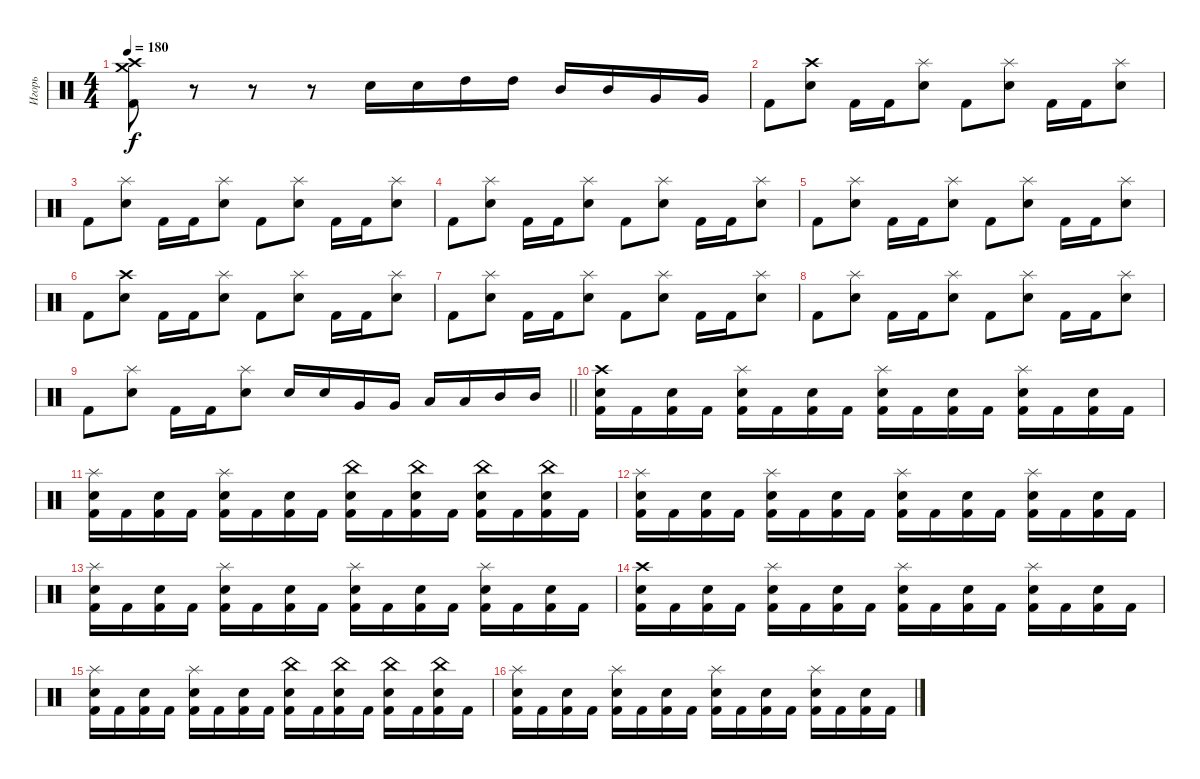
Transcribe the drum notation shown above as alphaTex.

\track ("Игорь" "Игорь") {instrument percussion}
\staff {score}
\articulation defaults
\ts (4 4)
\tempo 180
\clef neutral
\ks c
("Crash high (hit)" "Crash medium (hit)" "Kick (hit) 2").8{dy f} r.8 r.8 r.8 "Electric Snare (hit)".16 "Electric Snare (hit)".16 "High Tom (hit)".16 "High Tom (hit)".16 "Mid Tom (hit)".16 "Mid Tom (hit)".16 "Very Low Tom (hit)".16 "Very Low Tom (hit)".16 |
"Kick (hit) 2".8 ("Crash high (hit)" "Electric Snare (hit)").8 "Kick (hit) 2".16 "Kick (hit) 2".16 ("Splash (hit)" "Electric Snare (hit)").8 "Kick (hit) 2".8 ("Splash (hit)" "Electric Snare (hit)").8 "Kick (hit) 2".16 "Kick (hit) 2".16 ("Splash (hit)" "Electric Snare (hit)").8 |
"Kick (hit) 2".8 ("Splash (hit)" "Electric Snare (hit)").8 "Kick (hit) 2".16 "Kick (hit) 2".16 ("Splash (hit)" "Electric Snare (hit)").8 "Kick (hit) 2".8 ("Splash (hit)" "Electric Snare (hit)").8 "Kick (hit) 2".16 "Kick (hit) 2".16 ("Splash (hit)" "Electric Snare (hit)").8 |
"Kick (hit) 2".8 ("Splash (hit)" "Electric Snare (hit)").8 "Kick (hit) 2".16 "Kick (hit) 2".16 ("Splash (hit)" "Electric Snare (hit)").8 "Kick (hit) 2".8 ("Splash (hit)" "Electric Snare (hit)").8 "Kick (hit) 2".16 "Kick (hit) 2".16 ("Splash (hit)" "Electric Snare (hit)").8 |
"Kick (hit) 2".8 ("Splash (hit)" "Electric Snare (hit)").8 "Kick (hit) 2".16 "Kick (hit) 2".16 ("Splash (hit)" "Electric Snare (hit)").8 "Kick (hit) 2".8 ("Splash (hit)" "Electric Snare (hit)").8 "Kick (hit) 2".16 "Kick (hit) 2".16 ("Splash (hit)" "Electric Snare (hit)").8 |
"Kick (hit) 2".8 ("Crash high (hit)" "Electric Snare (hit)").8 "Kick (hit) 2".16 "Kick (hit) 2".16 ("Splash (hit)" "Electric Snare (hit)").8 "Kick (hit) 2".8 ("Splash (hit)" "Electric Snare (hit)").8 "Kick (hit) 2".16 "Kick (hit) 2".16 ("Splash (hit)" "Electric Snare (hit)").8 |
"Kick (hit) 2".8 ("Splash (hit)" "Electric Snare (hit)").8 "Kick (hit) 2".16 "Kick (hit) 2".16 ("Splash (hit)" "Electric Snare (hit)").8 "Kick (hit) 2".8 ("Splash (hit)" "Electric Snare (hit)").8 "Kick (hit) 2".16 "Kick (hit) 2".16 ("Splash (hit)" "Electric Snare (hit)").8 |
"Kick (hit) 2".8 ("Splash (hit)" "Electric Snare (hit)").8 "Kick (hit) 2".16 "Kick (hit) 2".16 ("Splash (hit)" "Electric Snare (hit)").8 "Kick (hit) 2".8 ("Splash (hit)" "Electric Snare (hit)").8 "Kick (hit) 2".16 "Kick (hit) 2".16 ("Splash (hit)" "Electric Snare (hit)").8 |
\barLineRight lightlight "Kick (hit) 2".8
("Splash (hit)" "Electric Snare (hit)").8 "Kick (hit) 2".16 "Kick (hit) 2".16 ("Splash (hit)" "Electric Snare (hit)").8 "Electric Snare (hit)".16 "Electric Snare (hit)".16 "Very Low Tom (hit)".16 "Very Low Tom (hit)".16 "Low Tom (hit)".16 "Low Tom (hit)".16 "Mid Tom (hit)".16 "Mid Tom (hit)".16 |
("Crash high (hit)" "Electric Snare (hit)" "Kick (hit) 2").16 "Kick (hit) 2".16 ("Electric Snare (hit)" "Kick (hit) 2").16 "Kick (hit) 2".16 ("Splash (hit)" "Electric Snare (hit)" "Kick (hit) 2").16 "Kick (hit) 2".16 ("Electric Snare (hit)" "Kick (hit) 2").16 "Kick (hit) 2".16 ("Splash (hit)" "Electric Snare (hit)" "Kick (hit) 2").16 "Kick (hit) 2".16 ("Electric Snare (hit)" "Kick (hit) 2").16 "Kick (hit) 2".16 ("Splash (hit)" "Electric Snare (hit)" "Kick (hit) 2").16 "Kick (hit) 2".16 ("Electric Snare (hit)" "Kick (hit) 2").16 "Kick (hit) 2".16 |
("Splash (hit)" "Electric Snare (hit)" "Kick (hit) 2").16 "Kick (hit) 2".16 ("Electric Snare (hit)" "Kick (hit) 2").16 "Kick (hit) 2".16 ("Splash (hit)" "Electric Snare (hit)" "Kick (hit) 2").16 "Kick (hit) 2".16 ("Electric Snare (hit)" "Kick (hit) 2").16 "Kick (hit) 2".16 ("China (hit)" "Electric Snare (hit)" "Kick (hit) 2").16 "Kick (hit) 2".16 ("China (hit)" "Electric Snare (hit)" "Kick (hit) 2").16 "Kick (hit) 2".16 ("China (hit)" "Electric Snare (hit)" "Kick (hit) 2").16 "Kick (hit) 2".16 ("China (hit)" "Electric Snare (hit)" "Kick (hit) 2").16 "Kick (hit) 2".16 |
("Splash (hit)" "Electric Snare (hit)" "Kick (hit) 2").16 "Kick (hit) 2".16 ("Electric Snare (hit)" "Kick (hit) 2").16 "Kick (hit) 2".16 ("Splash (hit)" "Electric Snare (hit)" "Kick (hit) 2").16 "Kick (hit) 2".16 ("Electric Snare (hit)" "Kick (hit) 2").16 "Kick (hit) 2".16 ("Splash (hit)" "Electric Snare (hit)" "Kick (hit) 2").16 "Kick (hit) 2".16 ("Electric Snare (hit)" "Kick (hit) 2").16 "Kick (hit) 2".16 ("Splash (hit)" "Electric Snare (hit)" "Kick (hit) 2").16 "Kick (hit) 2".16 ("Electric Snare (hit)" "Kick (hit) 2").16 "Kick (hit) 2".16 |
("Splash (hit)" "Electric Snare (hit)" "Kick (hit) 2").16 "Kick (hit) 2".16 ("Electric Snare (hit)" "Kick (hit) 2").16 "Kick (hit) 2".16 ("Splash (hit)" "Electric Snare (hit)" "Kick (hit) 2").16 "Kick (hit) 2".16 ("Electric Snare (hit)" "Kick (hit) 2").16 "Kick (hit) 2".16 ("Splash (hit)" "Electric Snare (hit)" "Kick (hit) 2").16 "Kick (hit) 2".16 ("Electric Snare (hit)" "Kick (hit) 2").16 "Kick (hit) 2".16 ("Splash (hit)" "Electric Snare (hit)" "Kick (hit) 2").16 "Kick (hit) 2".16 ("Electric Snare (hit)" "Kick (hit) 2").16 "Kick (hit) 2".16 |
("Crash high (hit)" "Electric Snare (hit)" "Kick (hit) 2").16 "Kick (hit) 2".16 ("Electric Snare (hit)" "Kick (hit) 2").16 "Kick (hit) 2".16 ("Splash (hit)" "Electric Snare (hit)" "Kick (hit) 2").16 "Kick (hit) 2".16 ("Electric Snare (hit)" "Kick (hit) 2").16 "Kick (hit) 2".16 ("Splash (hit)" "Electric Snare (hit)" "Kick (hit) 2").16 "Kick (hit) 2".16 ("Electric Snare (hit)" "Kick (hit) 2").16 "Kick (hit) 2".16 ("Splash (hit)" "Electric Snare (hit)" "Kick (hit) 2").16 "Kick (hit) 2".16 ("Electric Snare (hit)" "Kick (hit) 2").16 "Kick (hit) 2".16 |
("Splash (hit)" "Electric Snare (hit)" "Kick (hit) 2").16 "Kick (hit) 2".16 ("Electric Snare (hit)" "Kick (hit) 2").16 "Kick (hit) 2".16 ("Splash (hit)" "Electric Snare (hit)" "Kick (hit) 2").16 "Kick (hit) 2".16 ("Electric Snare (hit)" "Kick (hit) 2").16 "Kick (hit) 2".16 ("China (hit)" "Electric Snare (hit)" "Kick (hit) 2").16 "Kick (hit) 2".16 ("China (hit)" "Electric Snare (hit)" "Kick (hit) 2").16 "Kick (hit) 2".16 ("China (hit)" "Electric Snare (hit)" "Kick (hit) 2").16 "Kick (hit) 2".16 ("China (hit)" "Electric Snare (hit)" "Kick (hit) 2").16 "Kick (hit) 2".16 |
("Splash (hit)" "Electric Snare (hit)" "Kick (hit) 2").16 "Kick (hit) 2".16 ("Electric Snare (hit)" "Kick (hit) 2").16 "Kick (hit) 2".16 ("Splash (hit)" "Electric Snare (hit)" "Kick (hit) 2").16 "Kick (hit) 2".16 ("Electric Snare (hit)" "Kick (hit) 2").16 "Kick (hit) 2".16 ("Splash (hit)" "Electric Snare (hit)" "Kick (hit) 2").16 "Kick (hit) 2".16 ("Electric Snare (hit)" "Kick (hit) 2").16 "Kick (hit) 2".16 ("Splash (hit)" "Electric Snare (hit)" "Kick (hit) 2").16 "Kick (hit) 2".16 ("Electric Snare (hit)" "Kick (hit) 2").16 "Kick (hit) 2".16
